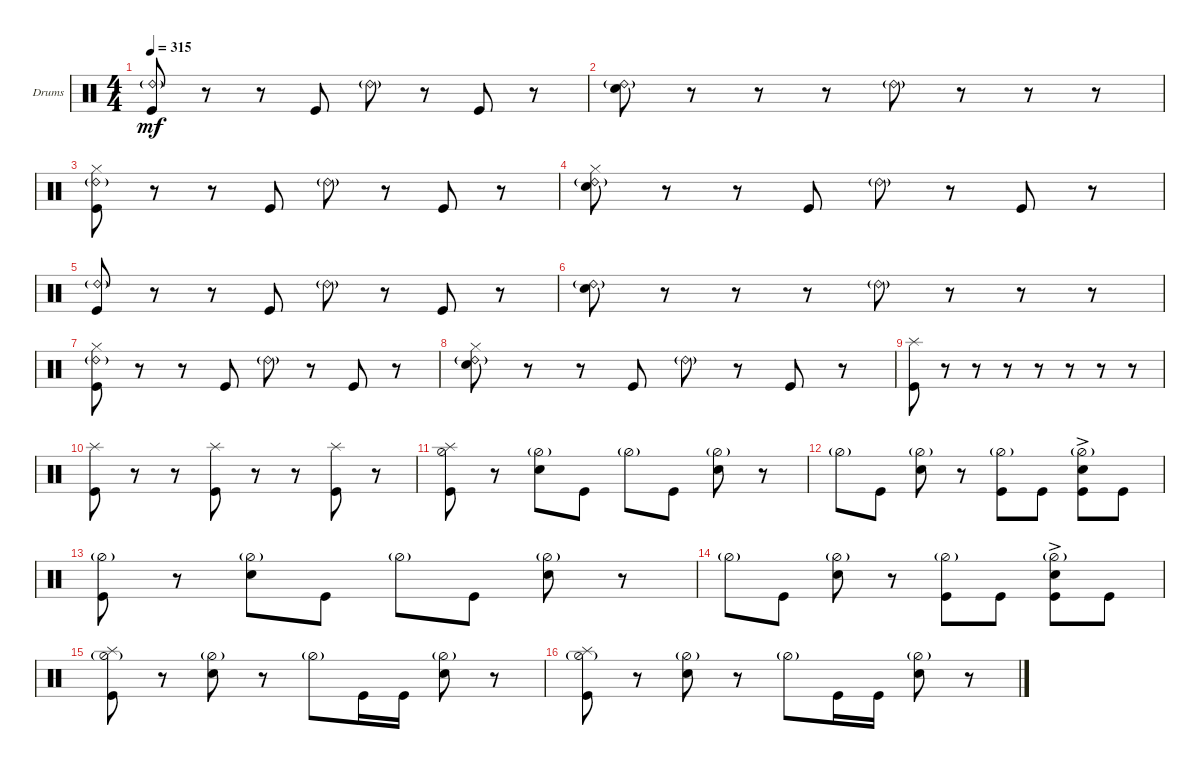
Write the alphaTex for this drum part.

\bracketExtendMode groupsimilarinstruments
\firstSystemTrackNameOrientation horizontal
\otherSystemsTrackNameOrientation horizontal
\track ("Drumkit" "Drums") {instrument percussion}
\staff {score}
\articulation defaults
\ts (4 4)
\tempo 315
\clef neutral
\ks c
("Kick (hit)" "Ride (bell) 2"{g}).8{dy mf} r.8 r.8 "Kick (hit)".8 "Ride (bell) 2"{g}.8 r.8 "Kick (hit)".8 r.8 |
("Snare (hit) 2" "Ride (bell) 2"{g}).8 r.8 r.8 r.8 "Ride (bell) 2"{g}.8 r.8 r.8 r.8 |
("Kick (hit)" "Hi-Hat (closed)" "Ride (bell) 2"{g}).8 r.8 r.8 "Kick (hit)".8 "Ride (bell) 2"{g}.8 r.8 "Kick (hit)".8 r.8 |
("Snare (hit) 2" "Hi-Hat (closed)" "Ride (bell) 2"{g}).8 r.8 r.8 "Kick (hit)".8 "Ride (bell) 2"{g}.8 r.8 "Kick (hit)".8 r.8 |
("Kick (hit)" "Ride (bell) 2"{g}).8 r.8 r.8 "Kick (hit)".8 "Ride (bell) 2"{g}.8 r.8 "Kick (hit)".8 r.8 |
("Snare (hit) 2" "Ride (bell) 2"{g}).8 r.8 r.8 r.8 "Ride (bell) 2"{g}.8 r.8 r.8 r.8 |
("Kick (hit)" "Hi-Hat (closed)" "Ride (bell) 2"{g}).8 r.8 r.8 "Kick (hit)".8 "Ride (bell) 2"{g}.8 r.8 "Kick (hit)".8 r.8 |
("Snare (hit) 2" "Hi-Hat (closed)" "Ride (bell) 2"{g}).8 r.8 r.8 "Kick (hit)".8 "Ride (bell) 2"{g}.8 r.8 "Kick (hit)".8 r.8 |
("Kick (hit)" "Splash (hit)").8 r.8 r.8 r.8 r.8 r.8 r.8 r.8 |
("Kick (hit)" "Splash (hit)").8 r.8 r.8 ("Kick (hit)" "Splash (hit)").8 r.8 r.8 ("Kick (hit)" "Splash (hit)").8 r.8 |
("Kick (hit)" "Hi-Hat (half)" "Splash (hit)").8 r.8 ("Snare (hit) 2" "Hi-Hat (half)"{g}).8 "Kick (hit)".8 "Hi-Hat (half)"{g}.8 "Kick (hit)".8 ("Snare (hit) 2" "Hi-Hat (half)"{g}).8 r.8 |
"Hi-Hat (half)"{g}.8 "Kick (hit)".8 ("Snare (hit) 2" "Hi-Hat (half)"{g}).8 r.8 ("Kick (hit)" "Hi-Hat (half)"{g}).8 "Kick (hit)".8 ("Snare (hit) 2"{ac} "Kick (hit)" "Hi-Hat (half)"{g}).8 "Kick (hit)".8 |
("Kick (hit)" "Hi-Hat (half)"{g}).8 r.8 ("Snare (hit) 2" "Hi-Hat (half)"{g}).8 "Kick (hit)".8 "Hi-Hat (half)"{g}.8 "Kick (hit)".8 ("Snare (hit) 2" "Hi-Hat (half)"{g}).8 r.8 |
"Hi-Hat (half)"{g}.8 "Kick (hit)".8 ("Snare (hit) 2" "Hi-Hat (half)"{g}).8 r.8 ("Kick (hit)" "Hi-Hat (half)"{g}).8 "Kick (hit)".8 ("Snare (hit) 2"{ac} "Kick (hit)" "Hi-Hat (half)"{g}).8 "Kick (hit)".8 |
("Kick (hit)" "Splash (hit)" "Hi-Hat (half)"{g}).8 r.8 ("Snare (hit) 2" "Hi-Hat (half)"{g}).8 r.8 "Hi-Hat (half)"{g}.8 "Kick (hit)".16 "Kick (hit)".16 ("Snare (hit) 2" "Hi-Hat (half)"{g}).8 r.8 |
("Kick (hit)" "Splash (hit)" "Hi-Hat (half)"{g}).8 r.8 ("Snare (hit) 2" "Hi-Hat (half)"{g}).8 r.8 "Hi-Hat (half)"{g}.8 "Kick (hit)".16 "Kick (hit)".16 ("Snare (hit) 2" "Hi-Hat (half)"{g}).8 r.8
